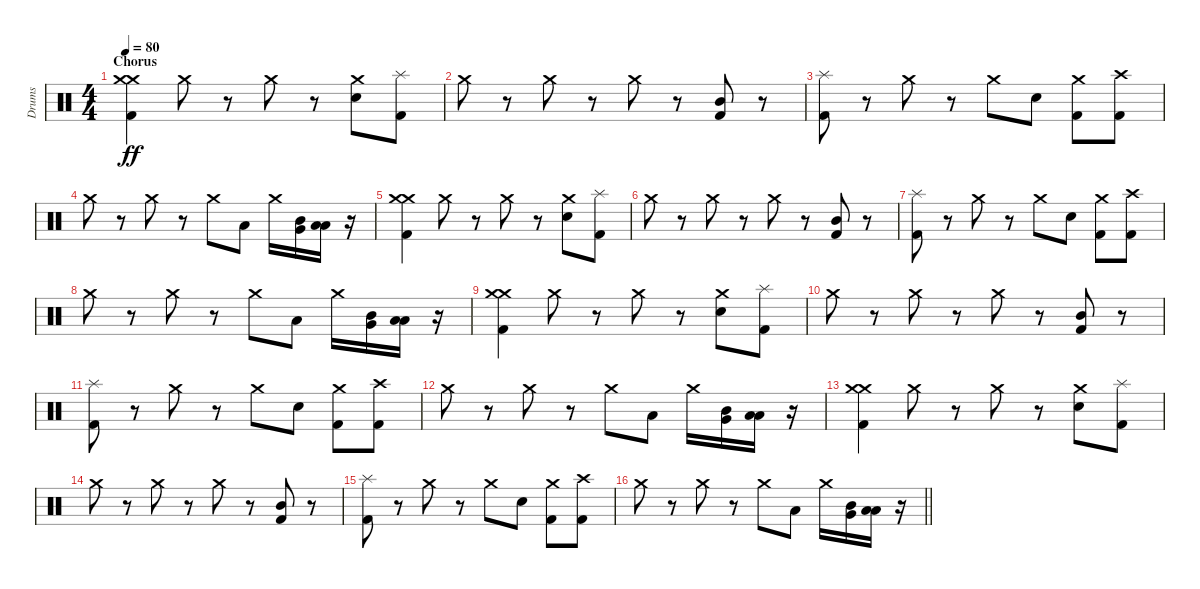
\track ("Drums" "Drums") {instrument percussion}
\staff {score}
\articulation defaults
\ts (4 4)
\section ("" "Chorus")
\tempo 80
\clef neutral
\ks c
("Crash medium (hit)" "Kick (hit) 2" "Crash medium (hit)").4{dy ff} "Crash medium (hit)".8 r.8 "Crash medium (hit)".8 r.8 ("Snare (hit) 2" "Crash medium (hit)").8 ("Kick (hit) 2" "Splash (hit)").8 |
"Crash medium (hit)".8 r.8 "Crash medium (hit)".8 r.8 "Crash medium (hit)".8 r.8 ("Kick (hit) 2" "Mid Tom (hit)").8 r.8 |
("Kick (hit) 2" "Splash (hit)").8 r.8 "Crash medium (hit)".8 r.8 "Crash medium (hit)".8 "Snare (hit) 2".8 ("Kick (hit) 2" "Crash medium (hit)").8 ("Kick (hit) 2" "Crash high (hit)").8 |
"Crash medium (hit)".8 r.8 "Crash medium (hit)".8 r.8 "Crash medium (hit)".8 "Low Tom (hit)".8 "Crash medium (hit)".16 ("Very Low Tom (hit)" "Mid Tom (hit)").16 ("Low Floor Tom (hit)" "Low Tom (hit)").16 r.16 |
("Crash medium (hit)" "Kick (hit) 2" "Crash medium (hit)").4 "Crash medium (hit)".8 r.8 "Crash medium (hit)".8 r.8 ("Snare (hit) 2" "Crash medium (hit)").8 ("Kick (hit) 2" "Splash (hit)").8 |
"Crash medium (hit)".8 r.8 "Crash medium (hit)".8 r.8 "Crash medium (hit)".8 r.8 ("Kick (hit) 2" "Mid Tom (hit)").8 r.8 |
("Kick (hit) 2" "Splash (hit)").8 r.8 "Crash medium (hit)".8 r.8 "Crash medium (hit)".8 "Snare (hit) 2".8 ("Kick (hit) 2" "Crash medium (hit)").8 ("Kick (hit) 2" "Crash high (hit)").8 |
"Crash medium (hit)".8 r.8 "Crash medium (hit)".8 r.8 "Crash medium (hit)".8 "Low Tom (hit)".8 "Crash medium (hit)".16 ("Very Low Tom (hit)" "Mid Tom (hit)").16 ("Low Floor Tom (hit)" "Low Tom (hit)").16 r.16 |
("Crash medium (hit)" "Kick (hit) 2" "Crash medium (hit)").4 "Crash medium (hit)".8 r.8 "Crash medium (hit)".8 r.8 ("Snare (hit) 2" "Crash medium (hit)").8 ("Kick (hit) 2" "Splash (hit)").8 |
"Crash medium (hit)".8 r.8 "Crash medium (hit)".8 r.8 "Crash medium (hit)".8 r.8 ("Kick (hit) 2" "Mid Tom (hit)").8 r.8 |
("Kick (hit) 2" "Splash (hit)").8 r.8 "Crash medium (hit)".8 r.8 "Crash medium (hit)".8 "Snare (hit) 2".8 ("Kick (hit) 2" "Crash medium (hit)").8 ("Kick (hit) 2" "Crash high (hit)").8 |
"Crash medium (hit)".8 r.8 "Crash medium (hit)".8 r.8 "Crash medium (hit)".8 "Low Tom (hit)".8 "Crash medium (hit)".16 ("Very Low Tom (hit)" "Mid Tom (hit)").16 ("Low Floor Tom (hit)" "Low Tom (hit)").16 r.16 |
("Crash medium (hit)" "Kick (hit) 2" "Crash medium (hit)").4 "Crash medium (hit)".8 r.8 "Crash medium (hit)".8 r.8 ("Snare (hit) 2" "Crash medium (hit)").8 ("Kick (hit) 2" "Splash (hit)").8 |
"Crash medium (hit)".8 r.8 "Crash medium (hit)".8 r.8 "Crash medium (hit)".8 r.8 ("Kick (hit) 2" "Mid Tom (hit)").8 r.8 |
("Kick (hit) 2" "Splash (hit)").8 r.8 "Crash medium (hit)".8 r.8 "Crash medium (hit)".8 "Snare (hit) 2".8 ("Kick (hit) 2" "Crash medium (hit)").8 ("Kick (hit) 2" "Crash high (hit)").8 |
\barLineRight lightlight "Crash medium (hit)".8
r.8 "Crash medium (hit)".8 r.8 "Crash medium (hit)".8 "Low Tom (hit)".8 "Crash medium (hit)".16 ("Very Low Tom (hit)" "Mid Tom (hit)").16 ("Low Floor Tom (hit)" "Low Tom (hit)").16 r.16
